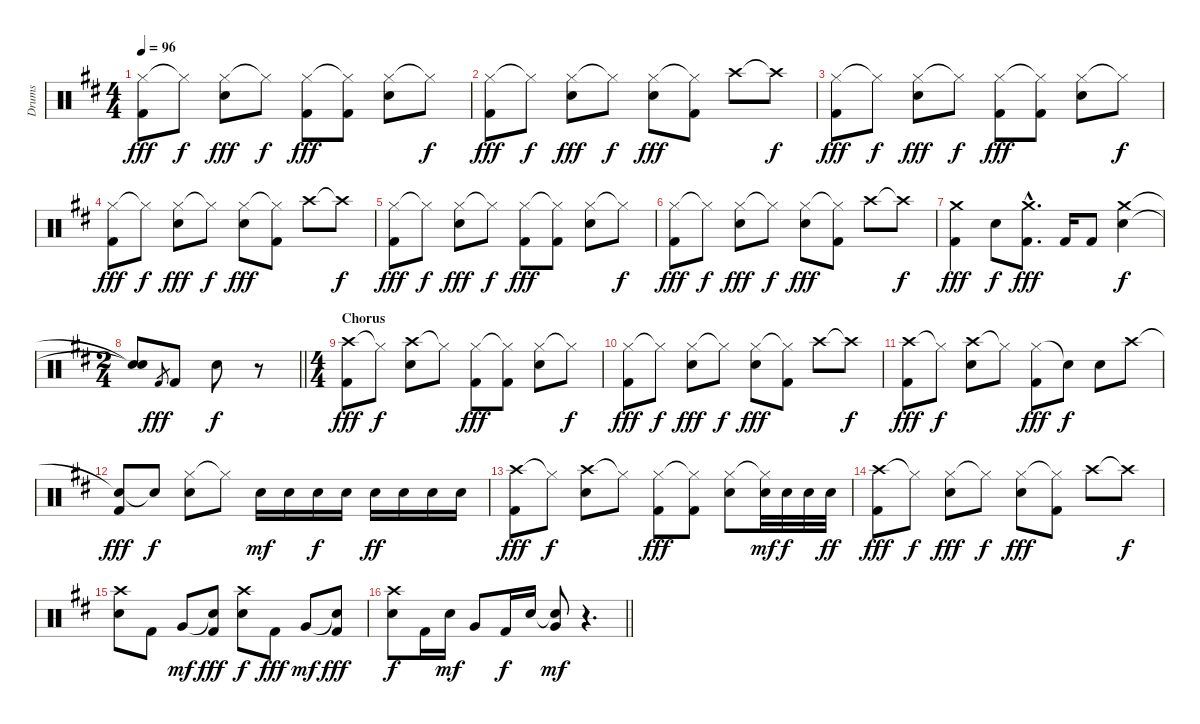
\track ("Drums" "Drums") {instrument percussion}
\staff {score}
\articulation defaults
\ts (4 4)
\tempo 96
\clef neutral
\ks d
("Hi-Hat (closed)" "Kick (hit) 2").8{dy fff} "Hi-Hat (closed)"{t}.8{dy f} ("Hi-Hat (closed)" "Snare (hit) 2").8{dy fff} "Hi-Hat (closed)"{t}.8{dy f} ("Hi-Hat (closed)" "Kick (hit) 2").8{dy fff} ("Hi-Hat (closed)"{t} "Kick (hit) 2").8 ("Hi-Hat (closed)" "Snare (hit) 2").8 "Hi-Hat (closed)"{t}.8{dy f} |
("Hi-Hat (closed)" "Kick (hit) 2").8{dy fff} "Hi-Hat (closed)"{t}.8{dy f} ("Hi-Hat (closed)" "Snare (hit) 2").8{dy fff} "Hi-Hat (closed)"{t}.8{dy f} ("Hi-Hat (closed)" "Snare (hit) 2").8{dy fff} ("Hi-Hat (closed)"{t} "Kick (hit) 2").8 "Crash high (hit)".8 "Crash high (hit)"{t}.8{dy f} |
("Hi-Hat (closed)" "Kick (hit) 2").8{dy fff} "Hi-Hat (closed)"{t}.8{dy f} ("Hi-Hat (closed)" "Snare (hit) 2").8{dy fff} "Hi-Hat (closed)"{t}.8{dy f} ("Hi-Hat (closed)" "Kick (hit) 2").8{dy fff} ("Hi-Hat (closed)"{t} "Kick (hit) 2").8 ("Hi-Hat (closed)" "Snare (hit) 2").8 "Hi-Hat (closed)"{t}.8{dy f} |
("Hi-Hat (closed)" "Kick (hit) 2").8{dy fff} "Hi-Hat (closed)"{t}.8{dy f} ("Hi-Hat (closed)" "Snare (hit) 2").8{dy fff} "Hi-Hat (closed)"{t}.8{dy f} ("Hi-Hat (closed)" "Snare (hit) 2").8{dy fff} ("Hi-Hat (closed)"{t} "Kick (hit) 2").8 "Crash high (hit)".8 "Crash high (hit)"{t}.8{dy f} |
("Hi-Hat (closed)" "Kick (hit) 2").8{dy fff} "Hi-Hat (closed)"{t}.8{dy f} ("Hi-Hat (closed)" "Snare (hit) 2").8{dy fff} "Hi-Hat (closed)"{t}.8{dy f} ("Hi-Hat (closed)" "Kick (hit) 2").8{dy fff} ("Hi-Hat (closed)"{t} "Kick (hit) 2").8 ("Hi-Hat (closed)" "Snare (hit) 2").8 "Hi-Hat (closed)"{t}.8{dy f} |
("Hi-Hat (closed)" "Kick (hit) 2").8{dy fff} "Hi-Hat (closed)"{t}.8{dy f} ("Hi-Hat (closed)" "Snare (hit) 2").8{dy fff} "Hi-Hat (closed)"{t}.8{dy f} ("Hi-Hat (closed)" "Snare (hit) 2").8{dy fff} ("Hi-Hat (closed)"{t} "Kick (hit) 2").8 "Crash high (hit)".8 "Crash high (hit)"{t}.8{dy f} |
("Crash medium (hit)" "Kick (hit) 2").4{dy fff} "Snare (hit) 2".8{dy f} ("Crash medium (hit)"{hac} "Kick (hit) 2"{hac}).8{d dy fff} "Kick (hit) 2".16 "Kick (hit) 2".8 ("Crash medium (hit)" "Snare (hit) 2").4{dy f} |
\ts (2 4)
\barLineRight lightlight
("Snare (hit)"{t} "Snare (hit)"{t}).8 "Kick (hit) 2".8{gr dy fff} "Kick (hit) 2".8 "Snare (hit) 2".8{dy f} r.8 |
\ts (4 4)
\section ("" "Chorus")
("Crash high (hit)" "Kick (hit) 2").8{dy fff} "Hi-Hat (closed)"{t}.8{dy f} ("Crash high (hit)" "Snare (hit) 2").8 "Hi-Hat (closed)"{t}.8 ("Hi-Hat (closed)" "Kick (hit) 2").8{dy fff} ("Hi-Hat (closed)"{t} "Kick (hit) 2").8 ("Hi-Hat (closed)" "Snare (hit) 2").8 "Hi-Hat (closed)"{t}.8{dy f} |
("Hi-Hat (closed)" "Kick (hit) 2").8{dy fff} "Hi-Hat (closed)"{t}.8{dy f} ("Hi-Hat (closed)" "Snare (hit) 2").8{dy fff} "Hi-Hat (closed)"{t}.8{dy f} ("Hi-Hat (closed)" "Snare (hit) 2").8{dy fff} ("Hi-Hat (closed)"{t} "Kick (hit) 2").8 "Crash high (hit)".8 "Crash high (hit)"{t}.8{dy f} |
("Crash high (hit)" "Kick (hit) 2").8{dy fff} "Hi-Hat (closed)"{t}.8{dy f} ("Crash high (hit)" "Snare (hit) 2").8 "Hi-Hat (closed)"{t}.8 ("Hi-Hat (closed)" "Kick (hit) 2").8{dy fff} "Snare (hit)"{t}.8{dy f} "Snare (hit) 2".8 "Crash high (hit)".8 |
("Snare (hit)"{t} "Kick (hit) 2").8{dy fff} "Snare (hit)"{t}.8{dy f} ("Hi-Hat (closed)" "Snare (hit) 2").8 "Hi-Hat (closed)"{t}.8 "Snare (hit) 2".16{dy mf} "Snare (hit) 2".16 "Snare (hit) 2".16{dy f} "Snare (hit) 2".16 "Snare (hit) 2".16{dy ff} "Snare (hit) 2".16 "Snare (hit) 2".16 "Snare (hit) 2".16 |
("Crash high (hit)" "Kick (hit) 2").8{dy fff} "Hi-Hat (closed)"{t}.8{dy f} ("Crash high (hit)" "Snare (hit) 2").8 "Hi-Hat (closed)"{t}.8 ("Hi-Hat (closed)" "Kick (hit) 2").8{dy fff} ("Hi-Hat (closed)"{t} "Kick (hit) 2").8 ("Hi-Hat (closed)" "Snare (hit) 2").8 ("Hi-Hat (closed)"{t} "Snare (hit) 2").32{dy mf} "Snare (hit) 2".32{dy f} "Snare (hit) 2".32 "Snare (hit) 2".32{dy ff} |
("Crash high (hit)" "Kick (hit) 2").8{dy fff} "Hi-Hat (closed)"{t}.8{dy f} ("Hi-Hat (closed)" "Snare (hit) 2").8{dy fff} "Hi-Hat (closed)"{t}.8{dy f} ("Hi-Hat (closed)" "Snare (hit) 2").8{dy fff} ("Hi-Hat (closed)"{t} "Kick (hit) 2").8 "Crash high (hit)".8 "Crash high (hit)"{t}.8{dy f} |
("Crash high (hit)" "Snare (hit) 2").8 "Kick (hit) 2".8 "Very Low Tom (hit)".8{dy mf} ("Snare (hit)"{t} "Kick (hit) 2").8{dy fff} ("Crash high (hit)" "Snare (hit) 2").8{dy f} "Kick (hit) 2".8{dy fff} "Very Low Tom (hit)".8{dy mf} ("Snare (hit)"{t} "Kick (hit) 2").8{dy fff} |
\barLineRight lightlight
("Crash high (hit)" "Snare (hit) 2").8{dy f} "Kick (hit) 2".16 "Snare (hit) 2".16{dy mf} "Very Low Tom (hit)".8 "Kick (hit) 2".16{dy f} "Snare (hit) 2".16 ("Snare (hit)"{t} "Very Low Tom (hit)").8{dy mf} r.4{d}
